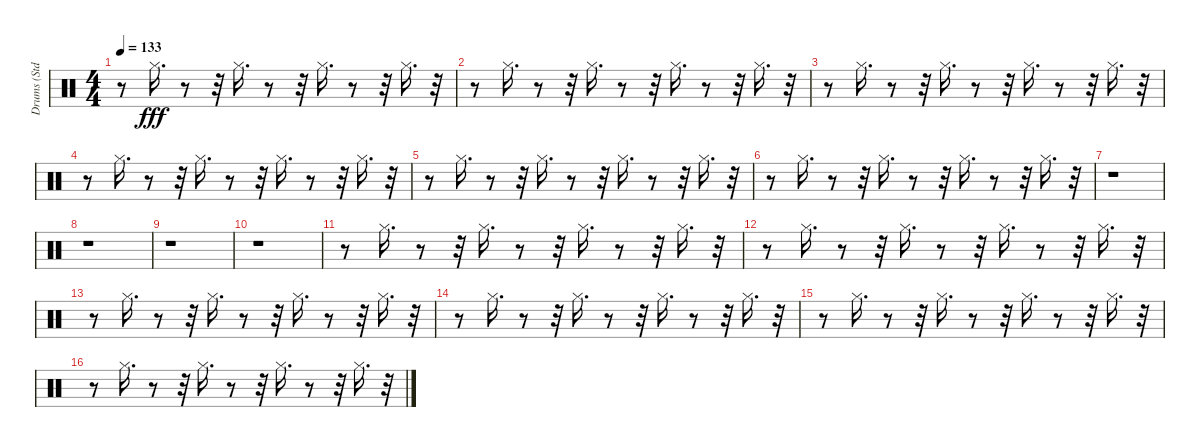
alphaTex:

\track ("Drums (Std.)" "Drums (Std") {instrument percussion}
\staff {score}
\articulation defaults
\ts (4 4)
\tempo 133
\clef neutral
\ks c
r.8{dy fff} "Hi-Hat (closed)".16{d} r.8 r.32 "Hi-Hat (closed)".16{d} r.8 r.32 "Hi-Hat (closed)".16{d} r.8 r.32 "Hi-Hat (closed)".16{d} r.32 |
r.8 "Hi-Hat (closed)".16{d} r.8 r.32 "Hi-Hat (closed)".16{d} r.8 r.32 "Hi-Hat (closed)".16{d} r.8 r.32 "Hi-Hat (closed)".16{d} r.32 |
r.8 "Hi-Hat (closed)".16{d} r.8 r.32 "Hi-Hat (closed)".16{d} r.8 r.32 "Hi-Hat (closed)".16{d} r.8 r.32 "Hi-Hat (closed)".16{d} r.32 |
r.8 "Hi-Hat (closed)".16{d} r.8 r.32 "Hi-Hat (closed)".16{d} r.8 r.32 "Hi-Hat (closed)".16{d} r.8 r.32 "Hi-Hat (closed)".16{d} r.32 |
r.8 "Hi-Hat (closed)".16{d} r.8 r.32 "Hi-Hat (closed)".16{d} r.8 r.32 "Hi-Hat (closed)".16{d} r.8 r.32 "Hi-Hat (closed)".16{d} r.32 |
r.8 "Hi-Hat (closed)".16{d} r.8 r.32 "Hi-Hat (closed)".16{d} r.8 r.32 "Hi-Hat (closed)".16{d} r.8 r.32 "Hi-Hat (closed)".16{d} r.32 |
r.1 |
r.1 |
r.1 |
r.1 |
r.8 "Hi-Hat (closed)".16{d} r.8 r.32 "Hi-Hat (closed)".16{d} r.8 r.32 "Hi-Hat (closed)".16{d} r.8 r.32 "Hi-Hat (closed)".16{d} r.32 |
r.8 "Hi-Hat (closed)".16{d} r.8 r.32 "Hi-Hat (closed)".16{d} r.8 r.32 "Hi-Hat (closed)".16{d} r.8 r.32 "Hi-Hat (closed)".16{d} r.32 |
r.8 "Hi-Hat (closed)".16{d} r.8 r.32 "Hi-Hat (closed)".16{d} r.8 r.32 "Hi-Hat (closed)".16{d} r.8 r.32 "Hi-Hat (closed)".16{d} r.32 |
r.8 "Hi-Hat (closed)".16{d} r.8 r.32 "Hi-Hat (closed)".16{d} r.8 r.32 "Hi-Hat (closed)".16{d} r.8 r.32 "Hi-Hat (closed)".16{d} r.32 |
r.8 "Hi-Hat (closed)".16{d} r.8 r.32 "Hi-Hat (closed)".16{d} r.8 r.32 "Hi-Hat (closed)".16{d} r.8 r.32 "Hi-Hat (closed)".16{d} r.32 |
r.8 "Hi-Hat (closed)".16{d} r.8 r.32 "Hi-Hat (closed)".16{d} r.8 r.32 "Hi-Hat (closed)".16{d} r.8 r.32 "Hi-Hat (closed)".16{d} r.32
